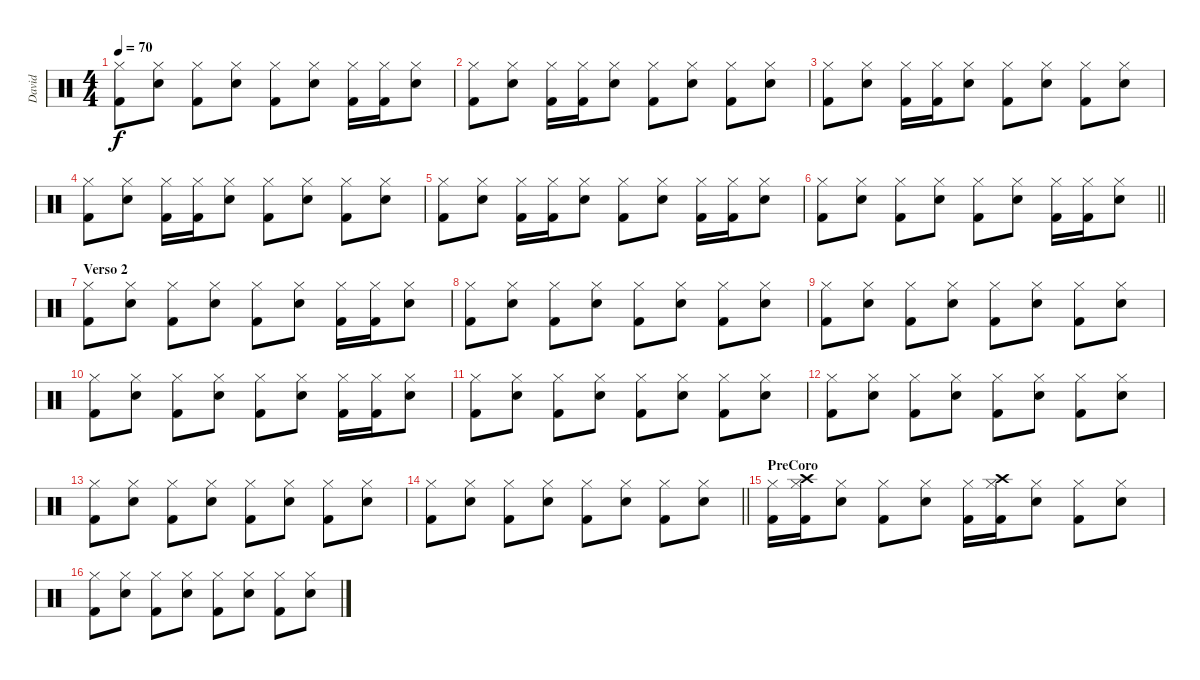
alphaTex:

\track ("David" "David") {instrument percussion}
\staff {score}
\articulation defaults
\ts (4 4)
\tempo 70
\clef neutral
\ks c
("Kick (hit) 2" "Hi-Hat (closed)").8{dy f} ("Snare (hit) 2" "Hi-Hat (closed)").8 ("Kick (hit) 2" "Hi-Hat (closed)").8 ("Snare (hit) 2" "Hi-Hat (closed)").8 ("Kick (hit) 2" "Hi-Hat (closed)").8 ("Snare (hit) 2" "Hi-Hat (closed)").8 ("Kick (hit) 2" "Hi-Hat (closed)").16 ("Kick (hit) 2" "Hi-Hat (closed)").16 ("Snare (hit) 2" "Hi-Hat (closed)").8 |
("Kick (hit) 2" "Hi-Hat (closed)").8 ("Snare (hit) 2" "Hi-Hat (closed)").8 ("Kick (hit) 2" "Hi-Hat (closed)").16 ("Kick (hit) 2" "Hi-Hat (closed)").16 ("Snare (hit) 2" "Hi-Hat (closed)").8 ("Kick (hit) 2" "Hi-Hat (closed)").8 ("Snare (hit) 2" "Hi-Hat (closed)").8 ("Kick (hit) 2" "Hi-Hat (closed)").8 ("Snare (hit) 2" "Hi-Hat (closed)").8 |
("Kick (hit) 2" "Hi-Hat (closed)").8 ("Snare (hit) 2" "Hi-Hat (closed)").8 ("Kick (hit) 2" "Hi-Hat (closed)").16 ("Kick (hit) 2" "Hi-Hat (closed)").16 ("Snare (hit) 2" "Hi-Hat (closed)").8 ("Kick (hit) 2" "Hi-Hat (closed)").8 ("Snare (hit) 2" "Hi-Hat (closed)").8 ("Kick (hit) 2" "Hi-Hat (closed)").8 ("Snare (hit) 2" "Hi-Hat (closed)").8 |
("Kick (hit) 2" "Hi-Hat (closed)").8 ("Snare (hit) 2" "Hi-Hat (closed)").8 ("Kick (hit) 2" "Hi-Hat (closed)").16 ("Kick (hit) 2" "Hi-Hat (closed)").16 ("Snare (hit) 2" "Hi-Hat (closed)").8 ("Kick (hit) 2" "Hi-Hat (closed)").8 ("Snare (hit) 2" "Hi-Hat (closed)").8 ("Kick (hit) 2" "Hi-Hat (closed)").8 ("Snare (hit) 2" "Hi-Hat (closed)").8 |
("Kick (hit) 2" "Hi-Hat (closed)").8 ("Snare (hit) 2" "Hi-Hat (closed)").8 ("Kick (hit) 2" "Hi-Hat (closed)").16 ("Kick (hit) 2" "Hi-Hat (closed)").16 ("Snare (hit) 2" "Hi-Hat (closed)").8 ("Kick (hit) 2" "Hi-Hat (closed)").8 ("Snare (hit) 2" "Hi-Hat (closed)").8 ("Kick (hit) 2" "Hi-Hat (closed)").16 ("Kick (hit) 2" "Hi-Hat (closed)").16 ("Snare (hit) 2" "Hi-Hat (closed)").8 |
\barLineRight lightlight
("Kick (hit) 2" "Hi-Hat (closed)").8 ("Snare (hit) 2" "Hi-Hat (closed)").8 ("Kick (hit) 2" "Hi-Hat (closed)").8 ("Snare (hit) 2" "Hi-Hat (closed)").8 ("Kick (hit) 2" "Hi-Hat (closed)").8 ("Snare (hit) 2" "Hi-Hat (closed)").8 ("Kick (hit) 2" "Hi-Hat (closed)").16 ("Kick (hit) 2" "Hi-Hat (closed)").16 ("Snare (hit) 2" "Hi-Hat (closed)").8 |
\section ("" "Verso 2")
("Kick (hit) 2" "Hi-Hat (closed)").8 ("Snare (hit) 2" "Hi-Hat (closed)").8 ("Kick (hit) 2" "Hi-Hat (closed)").8 ("Snare (hit) 2" "Hi-Hat (closed)").8 ("Kick (hit) 2" "Hi-Hat (closed)").8 ("Snare (hit) 2" "Hi-Hat (closed)").8 ("Kick (hit) 2" "Hi-Hat (closed)").16 ("Kick (hit) 2" "Hi-Hat (closed)").16 ("Snare (hit) 2" "Hi-Hat (closed)").8 |
("Kick (hit) 2" "Hi-Hat (closed)").8 ("Snare (hit) 2" "Hi-Hat (closed)").8 ("Kick (hit) 2" "Hi-Hat (closed)").8 ("Snare (hit) 2" "Hi-Hat (closed)").8 ("Kick (hit) 2" "Hi-Hat (closed)").8 ("Snare (hit) 2" "Hi-Hat (closed)").8 ("Kick (hit) 2" "Hi-Hat (closed)").8 ("Snare (hit) 2" "Hi-Hat (closed)").8 |
("Kick (hit) 2" "Hi-Hat (closed)").8 ("Snare (hit) 2" "Hi-Hat (closed)").8 ("Kick (hit) 2" "Hi-Hat (closed)").8 ("Snare (hit) 2" "Hi-Hat (closed)").8 ("Kick (hit) 2" "Hi-Hat (closed)").8 ("Snare (hit) 2" "Hi-Hat (closed)").8 ("Kick (hit) 2" "Hi-Hat (closed)").8 ("Snare (hit) 2" "Hi-Hat (closed)").8 |
("Kick (hit) 2" "Hi-Hat (closed)").8 ("Snare (hit) 2" "Hi-Hat (closed)").8 ("Kick (hit) 2" "Hi-Hat (closed)").8 ("Snare (hit) 2" "Hi-Hat (closed)").8 ("Kick (hit) 2" "Hi-Hat (closed)").8 ("Snare (hit) 2" "Hi-Hat (closed)").8 ("Kick (hit) 2" "Hi-Hat (closed)").16 ("Kick (hit) 2" "Hi-Hat (closed)").16 ("Snare (hit) 2" "Hi-Hat (closed)").8 |
("Kick (hit) 2" "Hi-Hat (closed)").8 ("Snare (hit) 2" "Hi-Hat (closed)").8 ("Kick (hit) 2" "Hi-Hat (closed)").8 ("Snare (hit) 2" "Hi-Hat (closed)").8 ("Kick (hit) 2" "Hi-Hat (closed)").8 ("Snare (hit) 2" "Hi-Hat (closed)").8 ("Kick (hit) 2" "Hi-Hat (closed)").8 ("Snare (hit) 2" "Hi-Hat (closed)").8 |
("Kick (hit) 2" "Hi-Hat (closed)").8 ("Snare (hit) 2" "Hi-Hat (closed)").8 ("Kick (hit) 2" "Hi-Hat (closed)").8 ("Snare (hit) 2" "Hi-Hat (closed)").8 ("Kick (hit) 2" "Hi-Hat (closed)").8 ("Snare (hit) 2" "Hi-Hat (closed)").8 ("Kick (hit) 2" "Hi-Hat (closed)").8 ("Snare (hit) 2" "Hi-Hat (closed)").8 |
("Kick (hit) 2" "Hi-Hat (closed)").8 ("Snare (hit) 2" "Hi-Hat (closed)").8 ("Kick (hit) 2" "Hi-Hat (closed)").8 ("Snare (hit) 2" "Hi-Hat (closed)").8 ("Kick (hit) 2" "Hi-Hat (closed)").8 ("Snare (hit) 2" "Hi-Hat (closed)").8 ("Kick (hit) 2" "Hi-Hat (closed)").8 ("Snare (hit) 2" "Hi-Hat (closed)").8 |
\barLineRight lightlight
("Kick (hit) 2" "Hi-Hat (closed)").8 ("Snare (hit) 2" "Hi-Hat (closed)").8 ("Kick (hit) 2" "Hi-Hat (closed)").8 ("Snare (hit) 2" "Hi-Hat (closed)").8 ("Kick (hit) 2" "Hi-Hat (closed)").8 ("Snare (hit) 2" "Hi-Hat (closed)").8 ("Kick (hit) 2" "Hi-Hat (closed)").8 ("Snare (hit) 2" "Hi-Hat (closed)").8 |
\section ("" "PreCoro")
("Kick (hit) 2" "Hi-Hat (closed)").16 ("Kick (hit) 2" "Hi-Hat (closed)" "Crash high (hit)").16 ("Snare (hit) 2" "Hi-Hat (closed)").8 ("Kick (hit) 2" "Hi-Hat (closed)").8 ("Snare (hit) 2" "Hi-Hat (closed)").8 ("Kick (hit) 2" "Hi-Hat (closed)").16 ("Kick (hit) 2" "Hi-Hat (closed)" "Crash high (hit)").16 ("Snare (hit) 2" "Hi-Hat (closed)").8 ("Kick (hit) 2" "Hi-Hat (closed)").8 ("Snare (hit) 2" "Hi-Hat (closed)").8 |
("Kick (hit) 2" "Hi-Hat (closed)").8 ("Snare (hit) 2" "Hi-Hat (closed)").8 ("Kick (hit) 2" "Hi-Hat (closed)").8 ("Snare (hit) 2" "Hi-Hat (closed)").8 ("Kick (hit) 2" "Hi-Hat (closed)").8 ("Snare (hit) 2" "Hi-Hat (closed)").8 ("Kick (hit) 2" "Hi-Hat (closed)").8 ("Snare (hit) 2" "Hi-Hat (closed)").8
